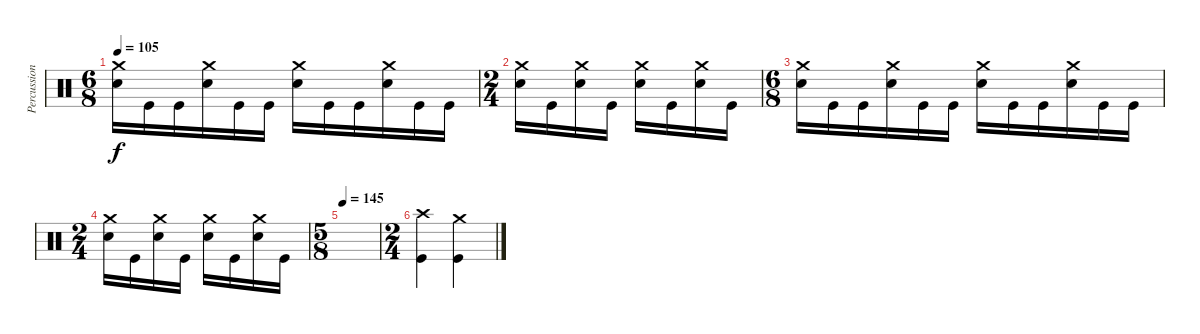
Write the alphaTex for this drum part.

\track ("Percussion" "Percussion") {instrument percussion}
\staff {score}
\articulation defaults
\ts (6 8)
\tempo 105
\clef neutral
\ks c
("Crash medium (hit)" "Snare (hit) 2").16{dy f} "Kick (hit)".16 "Kick (hit)".16 ("Crash medium (hit)" "Snare (hit) 2").16 "Kick (hit)".16 "Kick (hit)".16 ("Crash medium (hit)" "Snare (hit) 2").16 "Kick (hit)".16 "Kick (hit)".16 ("Crash medium (hit)" "Snare (hit) 2").16 "Kick (hit)".16 "Kick (hit)".16 |
\ts (2 4)
("Crash medium (hit)" "Snare (hit) 2").16 "Kick (hit)".16 ("Crash medium (hit)" "Snare (hit) 2").16 "Kick (hit)".16 ("Crash medium (hit)" "Snare (hit) 2").16 "Kick (hit)".16 ("Crash medium (hit)" "Snare (hit) 2").16 "Kick (hit)".16 |
\ts (6 8)
("Crash medium (hit)" "Snare (hit) 2").16 "Kick (hit)".16 "Kick (hit)".16 ("Crash medium (hit)" "Snare (hit) 2").16 "Kick (hit)".16 "Kick (hit)".16 ("Crash medium (hit)" "Snare (hit) 2").16 "Kick (hit)".16 "Kick (hit)".16 ("Crash medium (hit)" "Snare (hit) 2").16 "Kick (hit)".16 "Kick (hit)".16 |
\ts (2 4)
("Crash medium (hit)" "Snare (hit) 2").16 "Kick (hit)".16 ("Crash medium (hit)" "Snare (hit) 2").16 "Kick (hit)".16 ("Crash medium (hit)" "Snare (hit) 2").16 "Kick (hit)".16 ("Crash medium (hit)" "Snare (hit) 2").16 "Kick (hit)".16 |
\ts (5 8)
\tempo 145
|
\ts (2 4)
("Crash high (hit)" "Kick (hit)").4 ("Crash medium (hit)" "Kick (hit)").4
